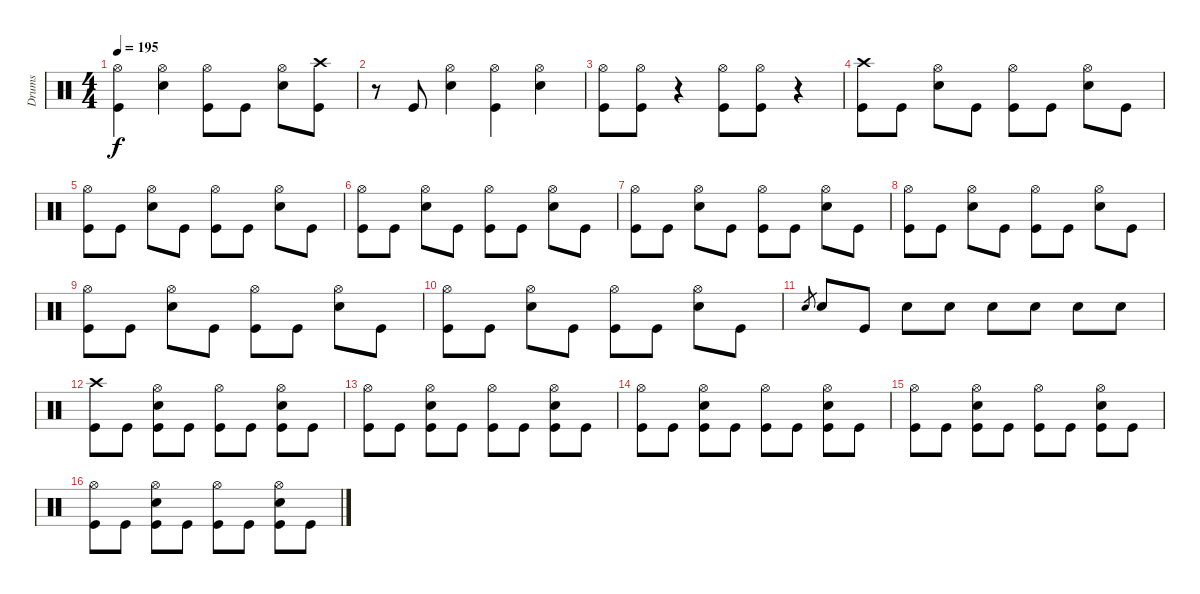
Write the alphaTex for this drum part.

\track ("Drums" "Drums") {instrument percussion}
\staff {score}
\articulation defaults
\ts (4 4)
\tempo 195
\clef neutral
\ks c
("Hi-Hat (open)" "Kick (hit)").4{dy f} ("Hi-Hat (open)" "Electric Snare (hit)").4 ("Hi-Hat (open)" "Kick (hit)").8 "Kick (hit)".8 ("Hi-Hat (open)" "Electric Snare (hit)").8 ("Crash high (hit)" "Kick (hit)").8 |
r.8 "Kick (hit)".8 ("Hi-Hat (open)" "Electric Snare (hit)").4 ("Hi-Hat (open)" "Kick (hit)").4 ("Hi-Hat (open)" "Electric Snare (hit)").4 |
("Hi-Hat (open)" "Kick (hit)").8 ("Hi-Hat (open)" "Kick (hit)").8 r.4 ("Hi-Hat (open)" "Kick (hit)").8 ("Hi-Hat (open)" "Kick (hit)").8 r.4 |
("Crash high (hit)" "Kick (hit)").8 "Kick (hit)".8 ("Hi-Hat (open)" "Electric Snare (hit)").8 "Kick (hit)".8 ("Hi-Hat (open)" "Kick (hit)").8 "Kick (hit)".8 ("Hi-Hat (open)" "Electric Snare (hit)").8 "Kick (hit)".8 |
("Hi-Hat (open)" "Kick (hit)").8 "Kick (hit)".8 ("Hi-Hat (open)" "Electric Snare (hit)").8 "Kick (hit)".8 ("Hi-Hat (open)" "Kick (hit)").8 "Kick (hit)".8 ("Hi-Hat (open)" "Electric Snare (hit)").8 "Kick (hit)".8 |
("Hi-Hat (open)" "Kick (hit)").8 "Kick (hit)".8 ("Hi-Hat (open)" "Electric Snare (hit)").8 "Kick (hit)".8 ("Hi-Hat (open)" "Kick (hit)").8 "Kick (hit)".8 ("Hi-Hat (open)" "Electric Snare (hit)").8 "Kick (hit)".8 |
("Hi-Hat (open)" "Kick (hit)").8 "Kick (hit)".8 ("Hi-Hat (open)" "Electric Snare (hit)").8 "Kick (hit)".8 ("Hi-Hat (open)" "Kick (hit)").8 "Kick (hit)".8 ("Hi-Hat (open)" "Electric Snare (hit)").8 "Kick (hit)".8 |
("Hi-Hat (open)" "Kick (hit)").8 "Kick (hit)".8 ("Hi-Hat (open)" "Electric Snare (hit)").8 "Kick (hit)".8 ("Hi-Hat (open)" "Kick (hit)").8 "Kick (hit)".8 ("Hi-Hat (open)" "Electric Snare (hit)").8 "Kick (hit)".8 |
("Hi-Hat (open)" "Kick (hit)").8 "Kick (hit)".8 ("Hi-Hat (open)" "Electric Snare (hit)").8 "Kick (hit)".8 ("Hi-Hat (open)" "Kick (hit)").8 "Kick (hit)".8 ("Hi-Hat (open)" "Electric Snare (hit)").8 "Kick (hit)".8 |
("Hi-Hat (open)" "Kick (hit)").8 "Kick (hit)".8 ("Hi-Hat (open)" "Electric Snare (hit)").8 "Kick (hit)".8 ("Hi-Hat (open)" "Kick (hit)").8 "Kick (hit)".8 ("Hi-Hat (open)" "Electric Snare (hit)").8 "Kick (hit)".8 |
"Electric Snare (hit)".8{gr} "Electric Snare (hit)".8 "Kick (hit)".8 "Electric Snare (hit)".8 "Electric Snare (hit)".8 "Electric Snare (hit)".8 "Electric Snare (hit)".8 "Electric Snare (hit)".8 "Electric Snare (hit)".8 |
("Crash high (hit)" "Kick (hit)").8 "Kick (hit)".8 ("Hi-Hat (open)" "Electric Snare (hit)" "Kick (hit)").8 "Kick (hit)".8 ("Hi-Hat (open)" "Kick (hit)").8 "Kick (hit)".8 ("Hi-Hat (open)" "Electric Snare (hit)" "Kick (hit)").8 "Kick (hit)".8 |
("Hi-Hat (open)" "Kick (hit)").8 "Kick (hit)".8 ("Hi-Hat (open)" "Electric Snare (hit)" "Kick (hit)").8 "Kick (hit)".8 ("Hi-Hat (open)" "Kick (hit)").8 "Kick (hit)".8 ("Hi-Hat (open)" "Electric Snare (hit)" "Kick (hit)").8 "Kick (hit)".8 |
("Hi-Hat (open)" "Kick (hit)").8 "Kick (hit)".8 ("Hi-Hat (open)" "Electric Snare (hit)" "Kick (hit)").8 "Kick (hit)".8 ("Hi-Hat (open)" "Kick (hit)").8 "Kick (hit)".8 ("Hi-Hat (open)" "Electric Snare (hit)" "Kick (hit)").8 "Kick (hit)".8 |
("Hi-Hat (open)" "Kick (hit)").8 "Kick (hit)".8 ("Hi-Hat (open)" "Electric Snare (hit)" "Kick (hit)").8 "Kick (hit)".8 ("Hi-Hat (open)" "Kick (hit)").8 "Kick (hit)".8 ("Hi-Hat (open)" "Electric Snare (hit)" "Kick (hit)").8 "Kick (hit)".8 |
("Hi-Hat (open)" "Kick (hit)").8 "Kick (hit)".8 ("Hi-Hat (open)" "Electric Snare (hit)" "Kick (hit)").8 "Kick (hit)".8 ("Hi-Hat (open)" "Kick (hit)").8 "Kick (hit)".8 ("Hi-Hat (open)" "Electric Snare (hit)" "Kick (hit)").8 "Kick (hit)".8
